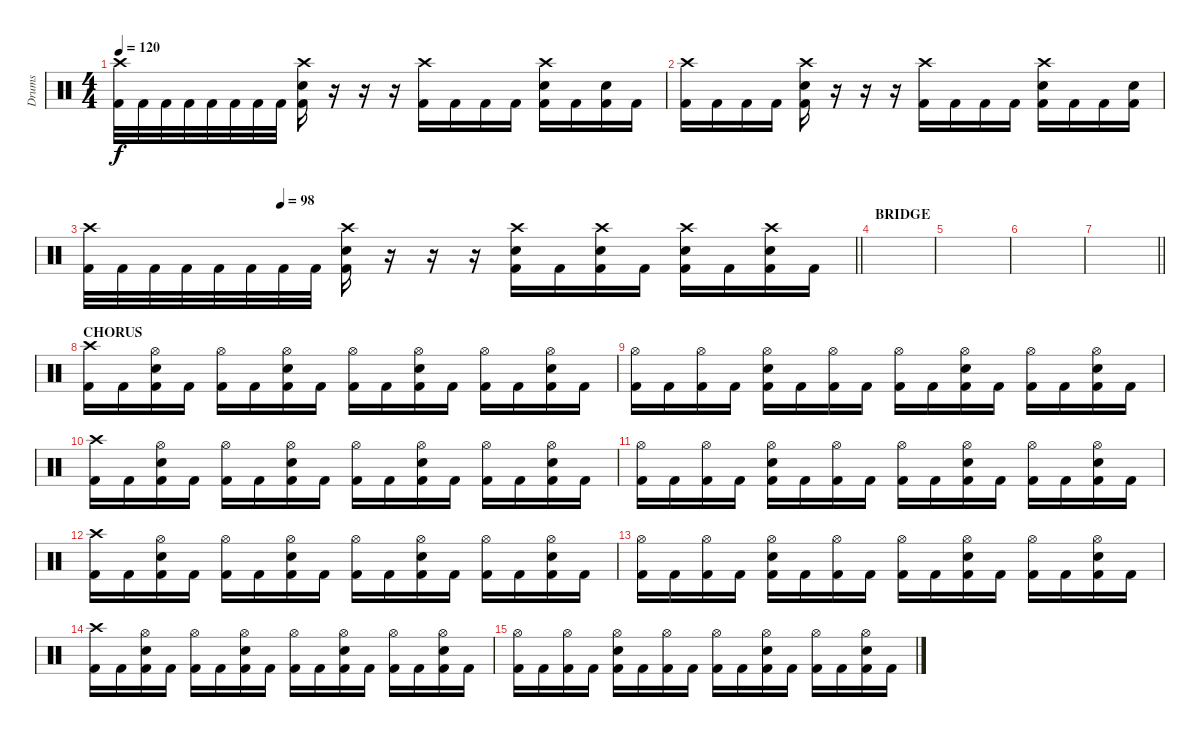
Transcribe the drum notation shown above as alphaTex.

\track ("Drums" "Drums") {instrument percussion}
\staff
\articulation defaults
\ts (4 4)
\tempo 120
\clef neutral
\ks c
("Crash high (hit)" "Kick (hit) 2").32{dy f} "Kick (hit) 2".32 "Kick (hit) 2".32 "Kick (hit) 2".32 "Kick (hit) 2".32 "Kick (hit) 2".32 "Kick (hit) 2".32 "Kick (hit) 2".32 ("Crash high (hit)" "Snare (hit) 2" "Kick (hit) 2").16 r.16 r.16 r.16 ("Crash high (hit)" "Kick (hit) 2").16 "Kick (hit) 2".16 "Kick (hit) 2".16 "Kick (hit) 2".16 ("Crash high (hit)" "Snare (hit) 2" "Kick (hit) 2").16 "Kick (hit) 2".16 ("Snare (hit) 2" "Kick (hit) 2").16 "Kick (hit) 2".16 |
("Crash high (hit)" "Kick (hit) 2").16 "Kick (hit) 2".16 "Kick (hit) 2".16 "Kick (hit) 2".16 ("Crash high (hit)" "Snare (hit) 2" "Kick (hit) 2").16 r.16 r.16 r.16 ("Crash high (hit)" "Kick (hit) 2").16 "Kick (hit) 2".16 "Kick (hit) 2".16 "Kick (hit) 2".16 ("Crash high (hit)" "Snare (hit) 2" "Kick (hit) 2").16 "Kick (hit) 2".16 "Kick (hit) 2".16 ("Snare (hit) 2" "Kick (hit) 2").16 |
\tempo (98 0.25)
\barLineRight lightlight
("Crash high (hit)" "Kick (hit) 2").32 "Kick (hit) 2".32 "Kick (hit) 2".32 "Kick (hit) 2".32 "Kick (hit) 2".32 "Kick (hit) 2".32 "Kick (hit) 2".32 "Kick (hit) 2".32 ("Crash high (hit)" "Snare (hit) 2" "Kick (hit) 2").16 r.16 r.16 r.16 ("Crash high (hit)" "Snare (hit) 2" "Kick (hit) 2").16 "Kick (hit) 2".16 ("Crash high (hit)" "Snare (hit) 2" "Kick (hit) 2").16 "Kick (hit) 2".16 ("Crash high (hit)" "Snare (hit) 2" "Kick (hit) 2").16 "Kick (hit) 2".16 ("Crash high (hit)" "Snare (hit) 2" "Kick (hit) 2").16 "Kick (hit) 2".16 |
\section ("" "BRIDGE")
|
|
|
\barLineRight lightlight
|
\section ("" "CHORUS")
("Crash high (hit)" "Kick (hit) 2").16 "Kick (hit) 2".16 ("Hi-Hat (open)" "Snare (hit) 2" "Kick (hit) 2").16 "Kick (hit) 2".16 ("Hi-Hat (open)" "Kick (hit) 2").16 "Kick (hit) 2".16 ("Hi-Hat (open)" "Snare (hit) 2" "Kick (hit) 2").16 "Kick (hit) 2".16 ("Hi-Hat (open)" "Kick (hit) 2").16 "Kick (hit) 2".16 ("Hi-Hat (open)" "Snare (hit) 2" "Kick (hit) 2").16 "Kick (hit) 2".16 ("Hi-Hat (open)" "Kick (hit) 2").16 "Kick (hit) 2".16 ("Hi-Hat (open)" "Snare (hit) 2" "Kick (hit) 2").16 "Kick (hit) 2".16 |
("Hi-Hat (open)" "Kick (hit) 2").16 "Kick (hit) 2".16 ("Hi-Hat (open)" "Kick (hit) 2").16 "Kick (hit) 2".16 ("Hi-Hat (open)" "Snare (hit) 2" "Kick (hit) 2").16 "Kick (hit) 2".16 ("Hi-Hat (open)" "Kick (hit) 2").16 "Kick (hit) 2".16 ("Hi-Hat (open)" "Kick (hit) 2").16 "Kick (hit) 2".16 ("Hi-Hat (open)" "Snare (hit) 2" "Kick (hit) 2").16 "Kick (hit) 2".16 ("Hi-Hat (open)" "Kick (hit) 2").16 "Kick (hit) 2".16 ("Hi-Hat (open)" "Snare (hit) 2" "Kick (hit) 2").16 "Kick (hit) 2".16 |
("Crash high (hit)" "Kick (hit) 2").16 "Kick (hit) 2".16 ("Hi-Hat (open)" "Snare (hit) 2" "Kick (hit) 2").16 "Kick (hit) 2".16 ("Hi-Hat (open)" "Kick (hit) 2").16 "Kick (hit) 2".16 ("Hi-Hat (open)" "Snare (hit) 2" "Kick (hit) 2").16 "Kick (hit) 2".16 ("Hi-Hat (open)" "Kick (hit) 2").16 "Kick (hit) 2".16 ("Hi-Hat (open)" "Snare (hit) 2" "Kick (hit) 2").16 "Kick (hit) 2".16 ("Hi-Hat (open)" "Kick (hit) 2").16 "Kick (hit) 2".16 ("Hi-Hat (open)" "Snare (hit) 2" "Kick (hit) 2").16 "Kick (hit) 2".16 |
("Hi-Hat (open)" "Kick (hit) 2").16 "Kick (hit) 2".16 ("Hi-Hat (open)" "Kick (hit) 2").16 "Kick (hit) 2".16 ("Hi-Hat (open)" "Snare (hit) 2" "Kick (hit) 2").16 "Kick (hit) 2".16 ("Hi-Hat (open)" "Kick (hit) 2").16 "Kick (hit) 2".16 ("Hi-Hat (open)" "Kick (hit) 2").16 "Kick (hit) 2".16 ("Hi-Hat (open)" "Snare (hit) 2" "Kick (hit) 2").16 "Kick (hit) 2".16 ("Hi-Hat (open)" "Kick (hit) 2").16 "Kick (hit) 2".16 ("Hi-Hat (open)" "Snare (hit) 2" "Kick (hit) 2").16 "Kick (hit) 2".16 |
("Crash high (hit)" "Kick (hit) 2").16 "Kick (hit) 2".16 ("Hi-Hat (open)" "Snare (hit) 2" "Kick (hit) 2").16 "Kick (hit) 2".16 ("Hi-Hat (open)" "Kick (hit) 2").16 "Kick (hit) 2".16 ("Hi-Hat (open)" "Snare (hit) 2" "Kick (hit) 2").16 "Kick (hit) 2".16 ("Hi-Hat (open)" "Kick (hit) 2").16 "Kick (hit) 2".16 ("Hi-Hat (open)" "Snare (hit) 2" "Kick (hit) 2").16 "Kick (hit) 2".16 ("Hi-Hat (open)" "Kick (hit) 2").16 "Kick (hit) 2".16 ("Hi-Hat (open)" "Snare (hit) 2" "Kick (hit) 2").16 "Kick (hit) 2".16 |
("Hi-Hat (open)" "Kick (hit) 2").16 "Kick (hit) 2".16 ("Hi-Hat (open)" "Kick (hit) 2").16 "Kick (hit) 2".16 ("Hi-Hat (open)" "Snare (hit) 2" "Kick (hit) 2").16 "Kick (hit) 2".16 ("Hi-Hat (open)" "Kick (hit) 2").16 "Kick (hit) 2".16 ("Hi-Hat (open)" "Kick (hit) 2").16 "Kick (hit) 2".16 ("Hi-Hat (open)" "Snare (hit) 2" "Kick (hit) 2").16 "Kick (hit) 2".16 ("Hi-Hat (open)" "Kick (hit) 2").16 "Kick (hit) 2".16 ("Hi-Hat (open)" "Snare (hit) 2" "Kick (hit) 2").16 "Kick (hit) 2".16 |
("Crash high (hit)" "Kick (hit) 2").16 "Kick (hit) 2".16 ("Hi-Hat (open)" "Snare (hit) 2" "Kick (hit) 2").16 "Kick (hit) 2".16 ("Hi-Hat (open)" "Kick (hit) 2").16 "Kick (hit) 2".16 ("Hi-Hat (open)" "Snare (hit) 2" "Kick (hit) 2").16 "Kick (hit) 2".16 ("Hi-Hat (open)" "Kick (hit) 2").16 "Kick (hit) 2".16 ("Hi-Hat (open)" "Snare (hit) 2" "Kick (hit) 2").16 "Kick (hit) 2".16 ("Hi-Hat (open)" "Kick (hit) 2").16 "Kick (hit) 2".16 ("Hi-Hat (open)" "Snare (hit) 2" "Kick (hit) 2").16 "Kick (hit) 2".16 |
("Hi-Hat (open)" "Kick (hit) 2").16 "Kick (hit) 2".16 ("Hi-Hat (open)" "Kick (hit) 2").16 "Kick (hit) 2".16 ("Hi-Hat (open)" "Snare (hit) 2" "Kick (hit) 2").16 "Kick (hit) 2".16 ("Hi-Hat (open)" "Kick (hit) 2").16 "Kick (hit) 2".16 ("Hi-Hat (open)" "Kick (hit) 2").16 "Kick (hit) 2".16 ("Hi-Hat (open)" "Snare (hit) 2" "Kick (hit) 2").16 "Kick (hit) 2".16 ("Hi-Hat (open)" "Kick (hit) 2").16 "Kick (hit) 2".16 ("Hi-Hat (open)" "Snare (hit) 2" "Kick (hit) 2").16 "Kick (hit) 2".16
